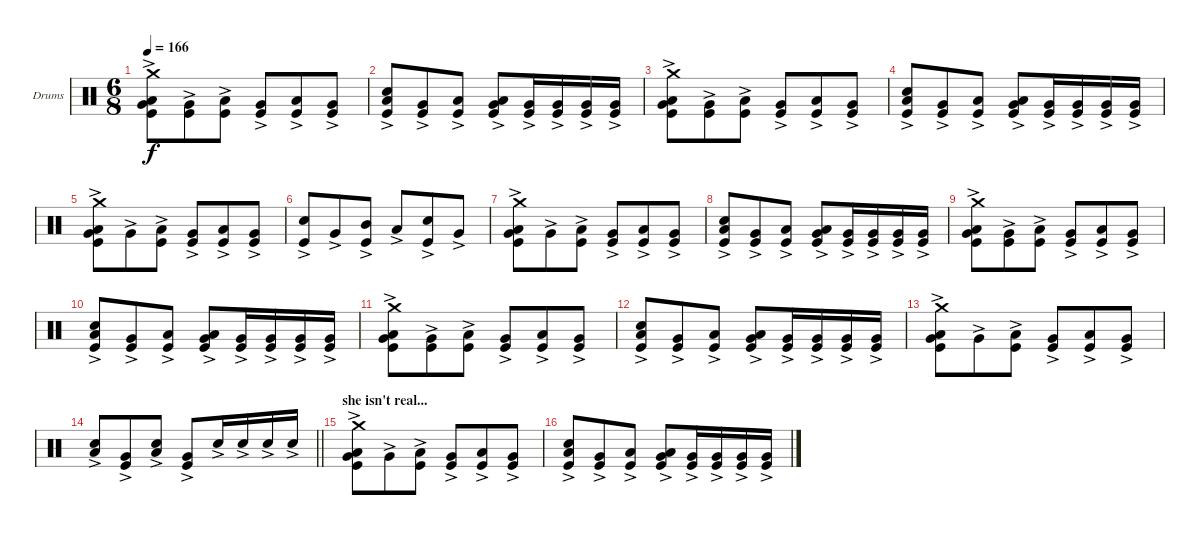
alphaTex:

\bracketExtendMode groupsimilarinstruments
\firstSystemTrackNameOrientation horizontal
\otherSystemsTrackNameOrientation horizontal
\track ("Drumkit" "Drums") {instrument percussion}
\staff {score}
\articulation defaults
\ts (6 8)
\tempo 166
\clef neutral
\ks c
("Crash medium (hit)" "Low Tom (hit)"{ac} "Kick (hit)" "Very Low Tom (hit)"{ac}).8{dy f} ("Very Low Tom (hit)"{ac} "Kick (hit)").8 ("Low Tom (hit)"{ac} "Kick (hit)").8 ("Very Low Tom (hit)"{ac} "Kick (hit)").8 ("Kick (hit)" "Low Tom (hit)"{ac}).8 ("Very Low Tom (hit)"{ac} "Kick (hit)").8 |
("Snare (hit) 2"{ac} "Kick (hit)" "Low Tom (hit)"{ac}).8 ("Very Low Tom (hit)"{ac} "Kick (hit)").8 ("Low Tom (hit)"{ac} "Kick (hit)").8 ("Low Tom (hit)"{ac} "Very Low Tom (hit)"{ac} "Kick (hit)").8 ("Very Low Tom (hit)"{ac} "Kick (hit)").16 ("Very Low Tom (hit)"{ac} "Kick (hit)").16 ("Very Low Tom (hit)"{ac} "Kick (hit)").16 ("Very Low Tom (hit)"{ac} "Kick (hit)").16 |
("Crash medium (hit)" "Low Tom (hit)"{ac} "Kick (hit)" "Very Low Tom (hit)"{ac}).8 ("Very Low Tom (hit)"{ac} "Kick (hit)").8 ("Low Tom (hit)"{ac} "Kick (hit)").8 ("Very Low Tom (hit)"{ac} "Kick (hit)").8 ("Kick (hit)" "Low Tom (hit)"{ac}).8 ("Very Low Tom (hit)"{ac} "Kick (hit)").8 |
("Snare (hit) 2"{ac} "Kick (hit)" "Low Tom (hit)"{ac}).8 ("Very Low Tom (hit)"{ac} "Kick (hit)").8 ("Low Tom (hit)"{ac} "Kick (hit)").8 ("Low Tom (hit)"{ac} "Very Low Tom (hit)"{ac} "Kick (hit)").8 ("Very Low Tom (hit)"{ac} "Kick (hit)").16 ("Very Low Tom (hit)"{ac} "Kick (hit)").16 ("Very Low Tom (hit)"{ac} "Kick (hit)").16 ("Very Low Tom (hit)"{ac} "Kick (hit)").16 |
("Crash medium (hit)" "Low Tom (hit)"{ac} "Kick (hit)" "Very Low Tom (hit)"{ac}).8 "Very Low Tom (hit)"{ac}.8 ("Low Tom (hit)"{ac} "Kick (hit)").8 ("Very Low Tom (hit)"{ac} "Kick (hit)").8 ("Kick (hit)" "Low Tom (hit)"{ac}).8 ("Very Low Tom (hit)"{ac} "Kick (hit)").8 |
("Snare (hit) 2"{ac} "Kick (hit)").8 "Very Low Tom (hit)"{ac}.8 ("Mid Tom (hit)"{ac} "Kick (hit)").8 "Low Tom (hit)"{ac}.8 ("Snare (hit) 2"{ac} "Kick (hit)").8 "Very Low Tom (hit)"{ac}.8 |
("Crash medium (hit)" "Low Tom (hit)"{ac} "Kick (hit)" "Very Low Tom (hit)"{ac}).8 "Very Low Tom (hit)"{ac}.8 ("Low Tom (hit)"{ac} "Kick (hit)").8 ("Very Low Tom (hit)"{ac} "Kick (hit)").8 ("Kick (hit)" "Low Tom (hit)"{ac}).8 ("Very Low Tom (hit)"{ac} "Kick (hit)").8 |
("Snare (hit) 2"{ac} "Kick (hit)" "Low Tom (hit)"{ac}).8 ("Very Low Tom (hit)"{ac} "Kick (hit)").8 ("Low Tom (hit)"{ac} "Kick (hit)").8 ("Low Tom (hit)"{ac} "Very Low Tom (hit)"{ac} "Kick (hit)").8 ("Very Low Tom (hit)"{ac} "Kick (hit)").16 ("Very Low Tom (hit)"{ac} "Kick (hit)").16 ("Very Low Tom (hit)"{ac} "Kick (hit)").16 ("Very Low Tom (hit)"{ac} "Kick (hit)").16 |
("Crash medium (hit)" "Low Tom (hit)"{ac} "Kick (hit)" "Very Low Tom (hit)"{ac}).8 ("Very Low Tom (hit)"{ac} "Kick (hit)").8 ("Low Tom (hit)"{ac} "Kick (hit)").8 ("Very Low Tom (hit)"{ac} "Kick (hit)").8 ("Kick (hit)" "Low Tom (hit)"{ac}).8 ("Very Low Tom (hit)"{ac} "Kick (hit)").8 |
("Snare (hit) 2"{ac} "Kick (hit)" "Low Tom (hit)"{ac}).8 ("Very Low Tom (hit)"{ac} "Kick (hit)").8 ("Low Tom (hit)"{ac} "Kick (hit)").8 ("Low Tom (hit)"{ac} "Very Low Tom (hit)"{ac} "Kick (hit)").8 ("Very Low Tom (hit)"{ac} "Kick (hit)").16 ("Very Low Tom (hit)"{ac} "Kick (hit)").16 ("Very Low Tom (hit)"{ac} "Kick (hit)").16 ("Very Low Tom (hit)"{ac} "Kick (hit)").16 |
("Crash medium (hit)" "Low Tom (hit)"{ac} "Kick (hit)" "Very Low Tom (hit)"{ac}).8 ("Very Low Tom (hit)"{ac} "Kick (hit)").8 ("Low Tom (hit)"{ac} "Kick (hit)").8 ("Very Low Tom (hit)"{ac} "Kick (hit)").8 ("Kick (hit)" "Low Tom (hit)"{ac}).8 ("Very Low Tom (hit)"{ac} "Kick (hit)").8 |
("Snare (hit) 2"{ac} "Kick (hit)" "Low Tom (hit)"{ac}).8 ("Very Low Tom (hit)"{ac} "Kick (hit)").8 ("Low Tom (hit)"{ac} "Kick (hit)").8 ("Low Tom (hit)"{ac} "Very Low Tom (hit)"{ac} "Kick (hit)").8 ("Very Low Tom (hit)"{ac} "Kick (hit)").16 ("Very Low Tom (hit)"{ac} "Kick (hit)").16 ("Very Low Tom (hit)"{ac} "Kick (hit)").16 ("Very Low Tom (hit)"{ac} "Kick (hit)").16 |
("Crash medium (hit)" "Low Tom (hit)"{ac} "Kick (hit)" "Very Low Tom (hit)"{ac}).8 "Very Low Tom (hit)"{ac}.8 ("Low Tom (hit)"{ac} "Kick (hit)").8 ("Very Low Tom (hit)"{ac} "Kick (hit)").8 ("Kick (hit)" "Low Tom (hit)"{ac}).8 ("Very Low Tom (hit)"{ac} "Kick (hit)").8 |
\barLineRight lightlight
("Snare (hit) 2"{ac} "Low Tom (hit)"{ac}).8 ("Kick (hit)" "Very Low Tom (hit)"{ac}).8 ("Snare (hit) 2"{ac} "Low Tom (hit)"{ac}).8 ("Kick (hit)" "Very Low Tom (hit)"{ac}).8 "Snare (hit) 2"{ac}.16 "Snare (hit) 2"{ac}.16 "Snare (hit) 2"{ac}.16 "Snare (hit) 2"{ac}.16 |
\section ("" "she isn't real...")
("Crash medium (hit)" "Low Tom (hit)"{ac} "Kick (hit)" "Very Low Tom (hit)"{ac}).8 "Very Low Tom (hit)"{ac}.8 ("Low Tom (hit)"{ac} "Kick (hit)").8 ("Very Low Tom (hit)"{ac} "Kick (hit)").8 ("Kick (hit)" "Low Tom (hit)"{ac}).8 ("Very Low Tom (hit)"{ac} "Kick (hit)").8 |
("Snare (hit) 2"{ac} "Kick (hit)" "Low Tom (hit)"{ac}).8 ("Very Low Tom (hit)"{ac} "Kick (hit)").8 ("Low Tom (hit)"{ac} "Kick (hit)").8 ("Low Tom (hit)"{ac} "Very Low Tom (hit)"{ac} "Kick (hit)").8 ("Very Low Tom (hit)"{ac} "Kick (hit)").16 ("Very Low Tom (hit)"{ac} "Kick (hit)").16 ("Very Low Tom (hit)"{ac} "Kick (hit)").16 ("Very Low Tom (hit)"{ac} "Kick (hit)").16
